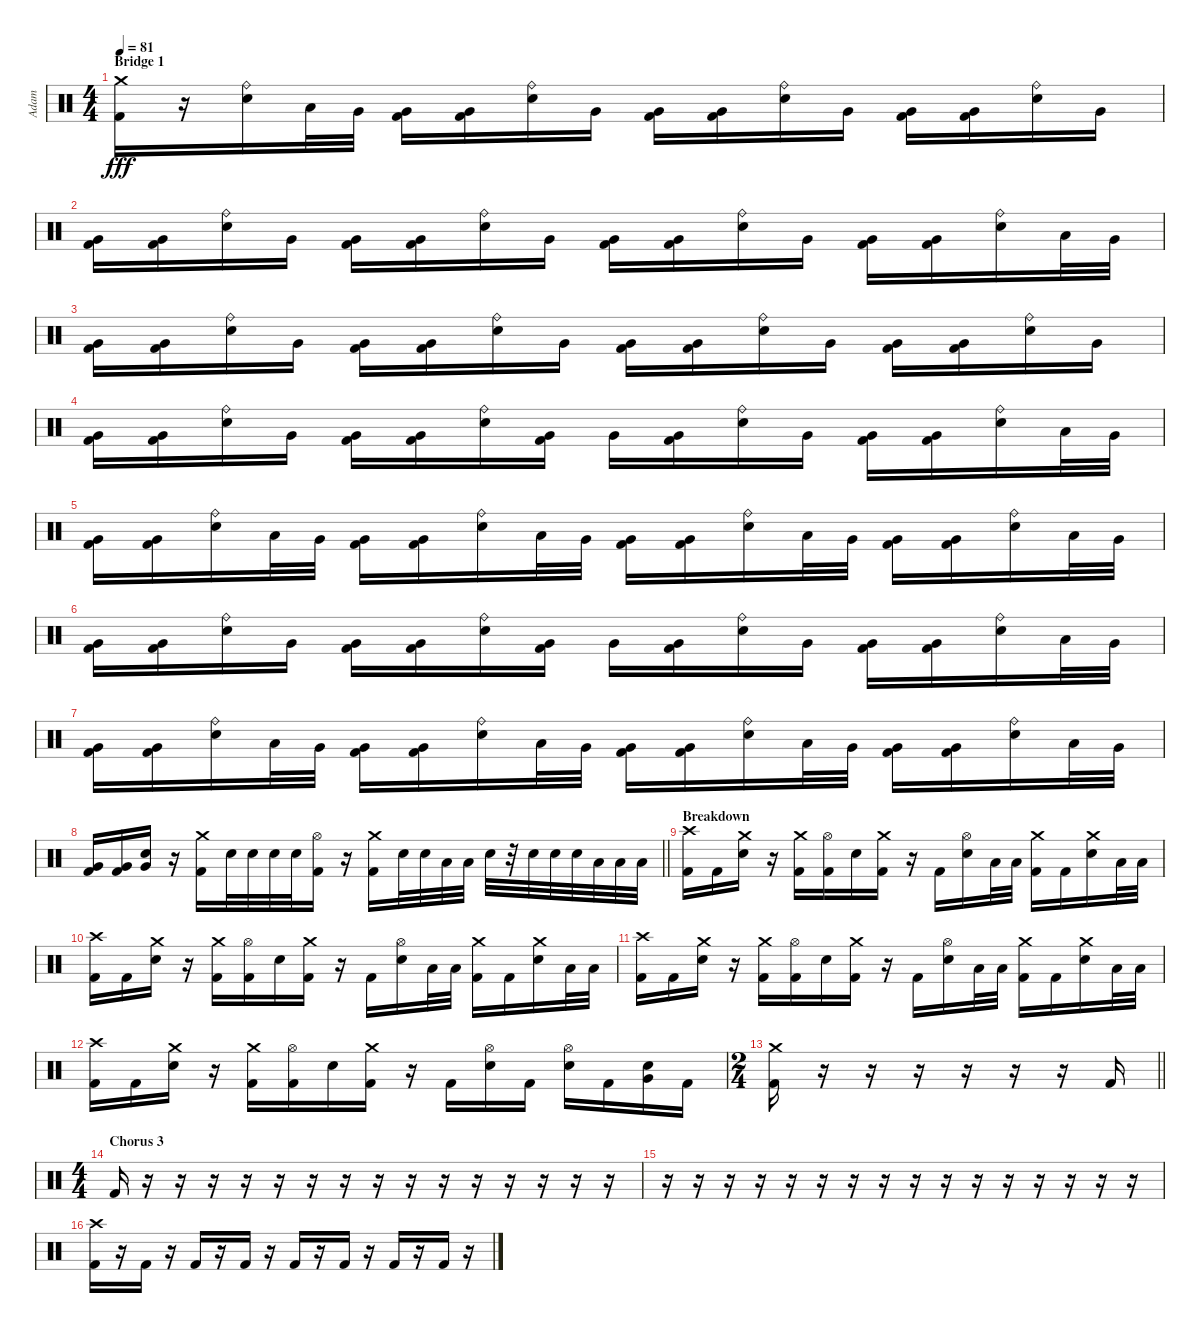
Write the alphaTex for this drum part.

\track ("Adam" "Adam") {instrument percussion}
\staff {score}
\articulation defaults
\ts (4 4)
\section ("" "Bridge 1")
\tempo 81
\clef neutral
\ks c
("Crash medium (hit)" "Kick (hit) 2").16{dy fff} r.16 ("Ride (bell)" "Electric Snare (hit)").16 "Low Tom (hit)".32 "Very Low Tom (hit)".32 ("Very Low Tom (hit)" "Kick (hit) 2").16 ("Very Low Tom (hit)" "Kick (hit) 2").16 ("Ride (bell)" "Electric Snare (hit)").16 "Very Low Tom (hit)".16 ("Very Low Tom (hit)" "Kick (hit) 2").16 ("Very Low Tom (hit)" "Kick (hit) 2").16 ("Ride (bell)" "Electric Snare (hit)").16 "Very Low Tom (hit)".16 ("Very Low Tom (hit)" "Kick (hit) 2").16 ("Very Low Tom (hit)" "Kick (hit) 2").16 ("Ride (bell)" "Electric Snare (hit)").16 "Very Low Tom (hit)".16 |
("Very Low Tom (hit)" "Kick (hit) 2").16 ("Very Low Tom (hit)" "Kick (hit) 2").16 ("Ride (bell)" "Electric Snare (hit)").16 "Very Low Tom (hit)".16 ("Very Low Tom (hit)" "Kick (hit) 2").16 ("Very Low Tom (hit)" "Kick (hit) 2").16 ("Ride (bell)" "Electric Snare (hit)").16 "Very Low Tom (hit)".16 ("Very Low Tom (hit)" "Kick (hit) 2").16 ("Very Low Tom (hit)" "Kick (hit) 2").16 ("Ride (bell)" "Electric Snare (hit)").16 "Very Low Tom (hit)".16 ("Very Low Tom (hit)" "Kick (hit) 2").16 ("Very Low Tom (hit)" "Kick (hit) 2").16 ("Ride (bell)" "Electric Snare (hit)").16 "Low Tom (hit)".32 "Very Low Tom (hit)".32 |
("Very Low Tom (hit)" "Kick (hit) 2").16 ("Very Low Tom (hit)" "Kick (hit) 2").16 ("Ride (bell)" "Electric Snare (hit)").16 "Very Low Tom (hit)".16 ("Very Low Tom (hit)" "Kick (hit) 2").16 ("Very Low Tom (hit)" "Kick (hit) 2").16 ("Ride (bell)" "Electric Snare (hit)").16 "Very Low Tom (hit)".16 ("Very Low Tom (hit)" "Kick (hit) 2").16 ("Very Low Tom (hit)" "Kick (hit) 2").16 ("Ride (bell)" "Electric Snare (hit)").16 "Very Low Tom (hit)".16 ("Very Low Tom (hit)" "Kick (hit) 2").16 ("Very Low Tom (hit)" "Kick (hit) 2").16 ("Ride (bell)" "Electric Snare (hit)").16 "Very Low Tom (hit)".16 |
("Very Low Tom (hit)" "Kick (hit) 2").16 ("Very Low Tom (hit)" "Kick (hit) 2").16 ("Ride (bell)" "Electric Snare (hit)").16 "Very Low Tom (hit)".16 ("Very Low Tom (hit)" "Kick (hit) 2").16 ("Very Low Tom (hit)" "Kick (hit) 2").16 ("Ride (bell)" "Electric Snare (hit)").16 ("Very Low Tom (hit)" "Kick (hit) 2").16 "Very Low Tom (hit)".16 ("Very Low Tom (hit)" "Kick (hit) 2").16 ("Ride (bell)" "Electric Snare (hit)").16 "Very Low Tom (hit)".16 ("Very Low Tom (hit)" "Kick (hit) 2").16 ("Very Low Tom (hit)" "Kick (hit) 2").16 ("Ride (bell)" "Electric Snare (hit)").16 "Low Tom (hit)".32 "Very Low Tom (hit)".32 |
("Very Low Tom (hit)" "Kick (hit) 2").16 ("Very Low Tom (hit)" "Kick (hit) 2").16 ("Ride (bell)" "Electric Snare (hit)").16 "Low Tom (hit)".32 "Very Low Tom (hit)".32 ("Very Low Tom (hit)" "Kick (hit) 2").16 ("Very Low Tom (hit)" "Kick (hit) 2").16 ("Ride (bell)" "Electric Snare (hit)").16 "Low Tom (hit)".32 "Very Low Tom (hit)".32 ("Very Low Tom (hit)" "Kick (hit) 2").16 ("Very Low Tom (hit)" "Kick (hit) 2").16 ("Ride (bell)" "Electric Snare (hit)").16 "Low Tom (hit)".32 "Very Low Tom (hit)".32 ("Very Low Tom (hit)" "Kick (hit) 2").16 ("Very Low Tom (hit)" "Kick (hit) 2").16 ("Ride (bell)" "Electric Snare (hit)").16 "Low Tom (hit)".32 "Very Low Tom (hit)".32 |
("Very Low Tom (hit)" "Kick (hit) 2").16 ("Very Low Tom (hit)" "Kick (hit) 2").16 ("Ride (bell)" "Electric Snare (hit)").16 "Very Low Tom (hit)".16 ("Very Low Tom (hit)" "Kick (hit) 2").16 ("Very Low Tom (hit)" "Kick (hit) 2").16 ("Ride (bell)" "Electric Snare (hit)").16 ("Very Low Tom (hit)" "Kick (hit) 2").16 "Very Low Tom (hit)".16 ("Very Low Tom (hit)" "Kick (hit) 2").16 ("Ride (bell)" "Electric Snare (hit)").16 "Very Low Tom (hit)".16 ("Very Low Tom (hit)" "Kick (hit) 2").16 ("Very Low Tom (hit)" "Kick (hit) 2").16 ("Ride (bell)" "Electric Snare (hit)").16 "Low Tom (hit)".32 "Very Low Tom (hit)".32 |
("Very Low Tom (hit)" "Kick (hit) 2").16 ("Very Low Tom (hit)" "Kick (hit) 2").16 ("Ride (bell)" "Electric Snare (hit)").16 "Low Tom (hit)".32 "Very Low Tom (hit)".32 ("Very Low Tom (hit)" "Kick (hit) 2").16 ("Very Low Tom (hit)" "Kick (hit) 2").16 ("Ride (bell)" "Electric Snare (hit)").16 "Low Tom (hit)".32 "Very Low Tom (hit)".32 ("Very Low Tom (hit)" "Kick (hit) 2").16 ("Very Low Tom (hit)" "Kick (hit) 2").16 ("Ride (bell)" "Electric Snare (hit)").16 "Low Tom (hit)".32 "Very Low Tom (hit)".32 ("Very Low Tom (hit)" "Kick (hit) 2").16 ("Very Low Tom (hit)" "Kick (hit) 2").16 ("Ride (bell)" "Electric Snare (hit)").16 "Low Tom (hit)".32 "Very Low Tom (hit)".32 |
\barLineRight lightlight
("Very Low Tom (hit)" "Kick (hit) 2").16 ("Very Low Tom (hit)" "Kick (hit) 2").16 ("Electric Snare (hit)" "Very Low Tom (hit)").16 r.16 ("Crash medium (hit)" "Kick (hit) 2").16 "Electric Snare (hit)".32 "Electric Snare (hit)".32 "Electric Snare (hit)".32 "Electric Snare (hit)".32 ("Hi-Hat (open)" "Kick (hit) 2").16 r.16 ("Crash medium (hit)" "Kick (hit) 2").16 "Electric Snare (hit)".32 "Electric Snare (hit)".32 "Low Tom (hit)".32 "Low Tom (hit)".32 "Electric Snare (hit)".32 r.32 "Electric Snare (hit)".32 "Electric Snare (hit)".32 "Electric Snare (hit)".32 "Low Tom (hit)".32 "Low Tom (hit)".32 "Low Tom (hit)".32 |
\section ("" "Breakdown")
("Crash high (hit)" "Kick (hit) 2").16 "Kick (hit) 2".16 ("Crash medium (hit)" "Electric Snare (hit)").16 r.16 ("Crash medium (hit)" "Kick (hit) 2").16 ("Hi-Hat (open)" "Kick (hit) 2").16 "Electric Snare (hit)".16 ("Crash medium (hit)" "Kick (hit) 2").16 r.16 "Kick (hit) 2".16 ("Hi-Hat (open)" "Electric Snare (hit)").16 "Low Tom (hit)".32 "Low Tom (hit)".32 ("Crash medium (hit)" "Kick (hit) 2").16 "Kick (hit) 2".16 ("Crash medium (hit)" "Electric Snare (hit)").16 "Low Tom (hit)".32 "Low Tom (hit)".32 |
("Crash high (hit)" "Kick (hit) 2").16 "Kick (hit) 2".16 ("Crash medium (hit)" "Electric Snare (hit)").16 r.16 ("Crash medium (hit)" "Kick (hit) 2").16 ("Hi-Hat (open)" "Kick (hit) 2").16 "Electric Snare (hit)".16 ("Crash medium (hit)" "Kick (hit) 2").16 r.16 "Kick (hit) 2".16 ("Hi-Hat (open)" "Electric Snare (hit)").16 "Low Tom (hit)".32 "Low Tom (hit)".32 ("Crash medium (hit)" "Kick (hit) 2").16 "Kick (hit) 2".16 ("Crash medium (hit)" "Electric Snare (hit)").16 "Low Tom (hit)".32 "Low Tom (hit)".32 |
("Crash high (hit)" "Kick (hit) 2").16 "Kick (hit) 2".16 ("Crash medium (hit)" "Electric Snare (hit)").16 r.16 ("Crash medium (hit)" "Kick (hit) 2").16 ("Hi-Hat (open)" "Kick (hit) 2").16 "Electric Snare (hit)".16 ("Crash medium (hit)" "Kick (hit) 2").16 r.16 "Kick (hit) 2".16 ("Hi-Hat (open)" "Electric Snare (hit)").16 "Low Tom (hit)".32 "Low Tom (hit)".32 ("Crash medium (hit)" "Kick (hit) 2").16 "Kick (hit) 2".16 ("Crash medium (hit)" "Electric Snare (hit)").16 "Low Tom (hit)".32 "Low Tom (hit)".32 |
("Crash high (hit)" "Kick (hit) 2").16 "Kick (hit) 2".16 ("Crash medium (hit)" "Electric Snare (hit)").16 r.16 ("Crash medium (hit)" "Kick (hit) 2").16 ("Hi-Hat (open)" "Kick (hit) 2").16 "Electric Snare (hit)".16 ("Crash medium (hit)" "Kick (hit) 2").16 r.16 "Kick (hit) 2".16 ("Hi-Hat (open)" "Electric Snare (hit)").16 "Kick (hit) 2".16 ("Hi-Hat (open)" "Electric Snare (hit)").16 "Kick (hit) 2".16 ("Electric Snare (hit)" "Very Low Tom (hit)").16 "Kick (hit) 2".16 |
\ts (2 4)
\barLineRight lightlight
("Crash medium (hit)" "Kick (hit) 2").16 r.16 r.16 r.16 r.16 r.16 r.16 "Kick (hit) 2".16 |
\ts (4 4)
\section ("" "Chorus 3")
"Kick (hit) 2".16 r.16 r.16 r.16 r.16 r.16 r.16 r.16 r.16 r.16 r.16 r.16 r.16 r.16 r.16 r.16 |
r.16 r.16 r.16 r.16 r.16 r.16 r.16 r.16 r.16 r.16 r.16 r.16 r.16 r.16 r.16 r.16 |
("Crash high (hit)" "Kick (hit) 2").16 r.16 "Kick (hit) 2".16 r.16 "Kick (hit) 2".16 r.16 "Kick (hit) 2".16 r.16 "Kick (hit) 2".16 r.16 "Kick (hit) 2".16 r.16 "Kick (hit) 2".16 r.16 "Kick (hit) 2".16 r.16
